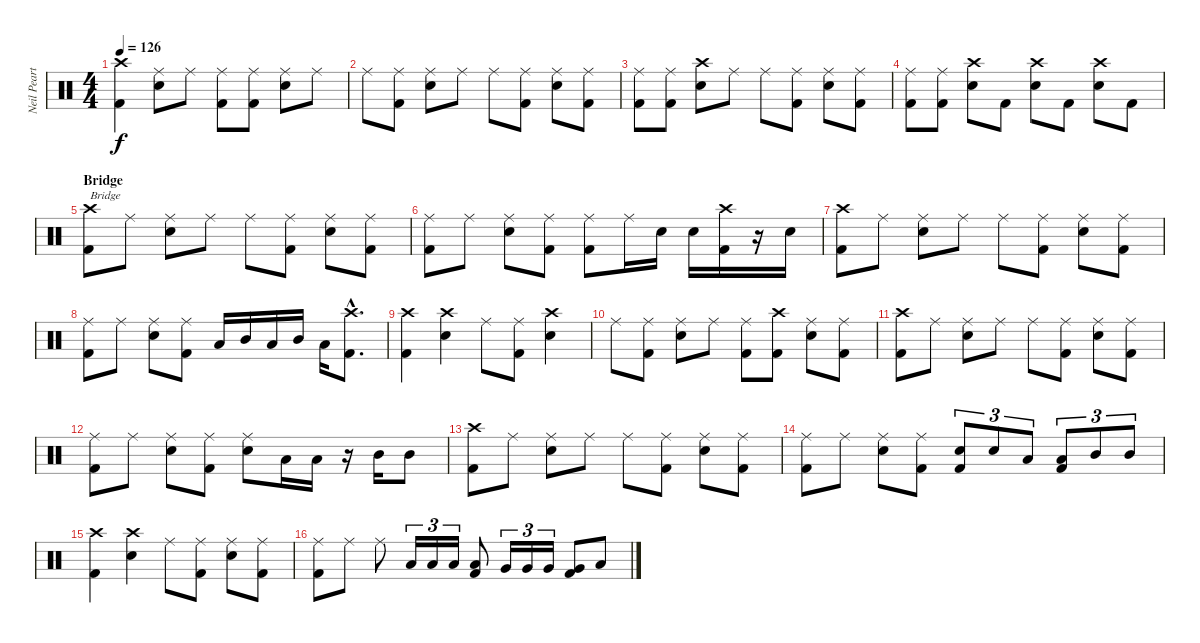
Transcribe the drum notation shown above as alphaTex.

\track ("Neil Peart" "Neil Peart") {instrument percussion}
\staff {score}
\articulation defaults
\ts (4 4)
\tempo 126
\clef neutral
\ks c
("Crash high (hit)" "Kick (hit) 2").4{dy f} ("Electric Snare (hit)" "Ride (middle)").8 "Ride (middle)".8 ("Ride (middle)" "Kick (hit) 2").8 ("Ride (middle)" "Kick (hit) 2").8 ("Electric Snare (hit)" "Ride (middle)").8 "Ride (middle)".8 |
"Ride (middle)".8 ("Ride (middle)" "Kick (hit) 2").8 ("Electric Snare (hit)" "Ride (middle)").8 "Ride (middle)".8 "Ride (middle)".8 ("Ride (middle)" "Kick (hit) 2").8 ("Electric Snare (hit)" "Ride (middle)").8 ("Ride (middle)" "Kick (hit) 2").8 |
("Ride (middle)" "Kick (hit) 2").8 ("Ride (middle)" "Kick (hit) 2").8 ("Electric Snare (hit)" "Crash high (hit)").8 "Ride (middle)".8 "Ride (middle)".8 ("Ride (middle)" "Kick (hit) 2").8 ("Electric Snare (hit)" "Ride (middle)").8 ("Ride (middle)" "Kick (hit) 2").8 |
("Ride (middle)" "Kick (hit) 2").8 ("Ride (middle)" "Kick (hit) 2").8 ("Electric Snare (hit)" "Crash high (hit)").8 "Kick (hit) 2".8 ("Electric Snare (hit)" "Crash high (hit)").8 "Kick (hit) 2".8 ("Electric Snare (hit)" "Crash high (hit)").8 "Kick (hit) 2".8 |
\section ("" "Bridge")
("Crash high (hit)" "Kick (hit) 2").8{txt "Bridge"} "Ride (middle)".8 ("Electric Snare (hit)" "Ride (middle)").8 "Ride (middle)".8 "Ride (middle)".8 ("Ride (middle)" "Kick (hit) 2").8 ("Electric Snare (hit)" "Ride (middle)").8 ("Ride (middle)" "Kick (hit) 2").8 |
("Ride (middle)" "Kick (hit) 2").8 "Ride (middle)".8 ("Electric Snare (hit)" "Ride (middle)").8 ("Ride (middle)" "Kick (hit) 2").8 ("Ride (middle)" "Kick (hit) 2").8 "Ride (middle)".16 "Electric Snare (hit)".16 "Electric Snare (hit)".16 ("Crash high (hit)" "Kick (hit) 2").16 r.16 "Electric Snare (hit)".16 |
("Crash high (hit)" "Kick (hit) 2").8 "Ride (middle)".8 ("Electric Snare (hit)" "Ride (middle)").8 "Ride (middle)".8 "Ride (middle)".8 ("Ride (middle)" "Kick (hit) 2").8 ("Electric Snare (hit)" "Ride (middle)").8 ("Ride (middle)" "Kick (hit) 2").8 |
("Ride (middle)" "Kick (hit) 2").8 "Ride (middle)".8 ("Electric Snare (hit)" "Ride (middle)").8 ("Ride (middle)" "Kick (hit) 2").8 "Low Tom (hit)".16 "Mid Tom (hit)".16 "Low Tom (hit)".16 "Mid Tom (hit)".16 "Low Tom (hit)".16 ("Crash high (hit)"{hac} "Kick (hit) 2"{hac}).8{d} |
("Crash high (hit)" "Kick (hit) 2").4 ("Electric Snare (hit)" "Crash high (hit)").4 "Ride (middle)".8 ("Ride (middle)" "Kick (hit) 2").8 ("Electric Snare (hit)" "Crash high (hit)").4 |
"Ride (middle)".8 ("Ride (middle)" "Kick (hit) 2").8 ("Electric Snare (hit)" "Ride (middle)").8 "Ride (middle)".8 ("Ride (middle)" "Kick (hit) 2").8 ("Crash high (hit)" "Kick (hit) 2").8 ("Electric Snare (hit)" "Ride (middle)").8 ("Ride (middle)" "Kick (hit) 2").8 |
("Crash high (hit)" "Kick (hit) 2").8 "Ride (middle)".8 ("Electric Snare (hit)" "Ride (middle)").8 "Ride (middle)".8 "Ride (middle)".8 ("Ride (middle)" "Kick (hit) 2").8 ("Electric Snare (hit)" "Ride (middle)").8 ("Ride (middle)" "Kick (hit) 2").8 |
("Ride (middle)" "Kick (hit) 2").8 "Ride (middle)".8 ("Electric Snare (hit)" "Ride (middle)").8 ("Ride (middle)" "Kick (hit) 2").8 ("Electric Snare (hit)" "Ride (middle)").8 "Low Tom (hit)".16 "Low Tom (hit)".16 r.16 "Mid Tom (hit)".16 "Mid Tom (hit)".8 |
("Crash high (hit)" "Kick (hit) 2").8 "Ride (middle)".8 ("Electric Snare (hit)" "Ride (middle)").8 "Ride (middle)".8 "Ride (middle)".8 ("Ride (middle)" "Kick (hit) 2").8 ("Electric Snare (hit)" "Ride (middle)").8 ("Ride (middle)" "Kick (hit) 2").8 |
("Ride (middle)" "Kick (hit) 2").8 "Ride (middle)".8 ("Electric Snare (hit)" "Ride (middle)").8 ("Ride (middle)" "Kick (hit) 2").8 ("Electric Snare (hit)" "Kick (hit) 2").8{tu (3 2)} "Electric Snare (hit)".8{tu (3 2)} "Low Tom (hit)".8{tu (3 2)} ("Kick (hit) 2" "Low Tom (hit)").8{tu (3 2)} "Mid Tom (hit)".8{tu (3 2)} "Mid Tom (hit)".8{tu (3 2)} |
("Crash high (hit)" "Kick (hit) 2").4 ("Electric Snare (hit)" "Crash high (hit)").4 "Ride (middle)".8 ("Ride (middle)" "Kick (hit) 2").8 ("Electric Snare (hit)" "Ride (middle)").8 ("Ride (middle)" "Kick (hit) 2").8 |
("Ride (middle)" "Kick (hit) 2").8 "Ride (middle)".8 "Ride (middle)".8 "Low Floor Tom (hit)".16{tu (3 2)} "Low Floor Tom (hit)".16{tu (3 2)} "Low Floor Tom (hit)".16{tu (3 2)} ("Kick (hit) 2" "Low Floor Tom (hit)").8 "Very Low Tom (hit)".16{tu (3 2)} "Very Low Tom (hit)".16{tu (3 2)} "Very Low Tom (hit)".16{tu (3 2)} ("Kick (hit) 2" "Very Low Tom (hit)").8 "Low Tom (hit)".8
